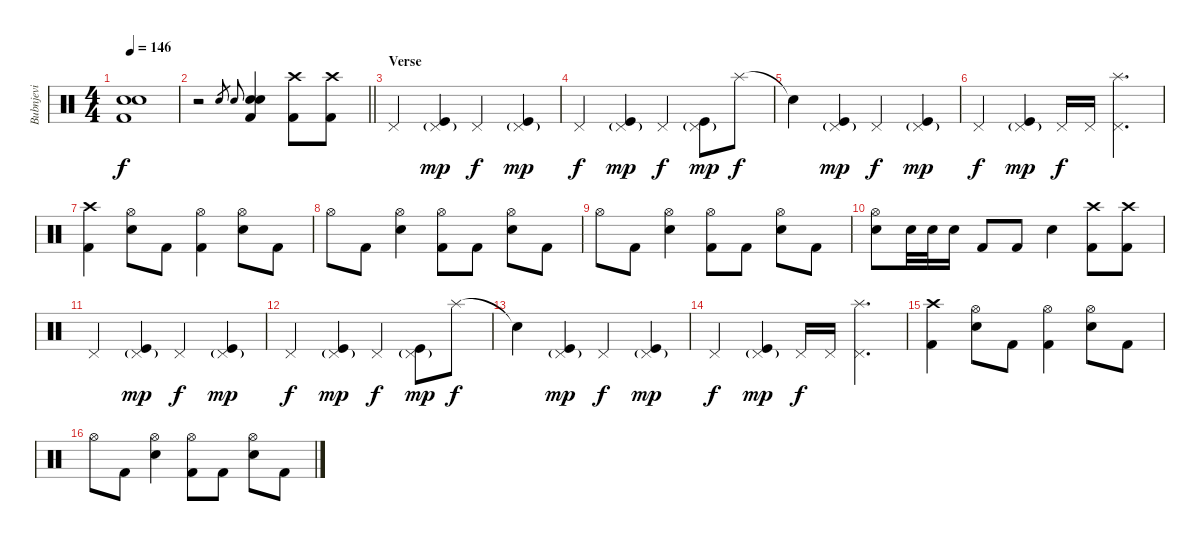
\track ("Bubnjevi" "Bubnjevi") {instrument percussion}
\staff {score}
\articulation defaults
\ts (4 4)
\section ("" "")
\tempo 146
\clef neutral
\ks c
("Electric Snare (hit)" "Snare (hit) 2" "Kick (hit) 2").1{dy f} |
\barLineRight lightlight
r.2 "Snare (hit) 2".16{gr} "Snare (hit) 2".16{gr onbeat} ("Electric Snare (hit)" "Snare (hit) 2" "Kick (hit) 2").4 ("Crash high (hit)" "Kick (hit) 2").8 ("Crash high (hit)" "Kick (hit) 2").8 |
\section ("" "Verse")
"Pedal Hi-Hat (hit)".4 ("Pedal Hi-Hat (hit)"{g} "Kick (hit)").4{dy mp} "Pedal Hi-Hat (hit)".4{dy f} ("Pedal Hi-Hat (hit)"{g} "Kick (hit)").4{dy mp} |
"Pedal Hi-Hat (hit)".4{dy f} ("Pedal Hi-Hat (hit)"{g} "Kick (hit)").4{dy mp} "Pedal Hi-Hat (hit)".4{dy f} ("Pedal Hi-Hat (hit)"{g} "Kick (hit)").8{dy mp} "Splash (hit)".8{dy f} |
"Snare (hit)"{t}.4 ("Pedal Hi-Hat (hit)"{g} "Kick (hit)").4{dy mp} "Pedal Hi-Hat (hit)".4{dy f} ("Pedal Hi-Hat (hit)"{g} "Kick (hit)").4{dy mp} |
"Pedal Hi-Hat (hit)".4{dy f} ("Pedal Hi-Hat (hit)"{g} "Kick (hit)").4{dy mp} "Pedal Hi-Hat (hit)".16{dy f} "Pedal Hi-Hat (hit)".16 ("Pedal Hi-Hat (hit)" "Splash (hit)").4{d} |
("Crash high (hit)" "Kick (hit) 2").4 ("Hi-Hat (open)" "Electric Snare (hit)").8 "Kick (hit) 2".8 ("Hi-Hat (open)" "Kick (hit) 2").4 ("Hi-Hat (open)" "Electric Snare (hit)").8 "Kick (hit) 2".8 |
"Hi-Hat (open)".8 "Kick (hit) 2".8 ("Hi-Hat (open)" "Electric Snare (hit)").4 ("Hi-Hat (open)" "Kick (hit) 2").8 "Kick (hit) 2".8 ("Hi-Hat (open)" "Electric Snare (hit)").8 "Kick (hit) 2".8 |
"Hi-Hat (open)".8 "Kick (hit) 2".8 ("Hi-Hat (open)" "Electric Snare (hit)").4 ("Hi-Hat (open)" "Kick (hit) 2").8 "Kick (hit) 2".8 ("Hi-Hat (open)" "Electric Snare (hit)").8 "Kick (hit) 2".8 |
("Hi-Hat (open)" "Snare (hit) 2").8 "Snare (hit) 2".32 "Snare (hit) 2".32 "Snare (hit) 2".16 "Kick (hit) 2".8 "Kick (hit) 2".8 "Snare (hit) 2".4 ("Crash high (hit)" "Kick (hit) 2").8 ("Crash high (hit)" "Kick (hit) 2").8 |
"Pedal Hi-Hat (hit)".4 ("Pedal Hi-Hat (hit)"{g} "Kick (hit)").4{dy mp} "Pedal Hi-Hat (hit)".4{dy f} ("Pedal Hi-Hat (hit)"{g} "Kick (hit)").4{dy mp} |
"Pedal Hi-Hat (hit)".4{dy f} ("Pedal Hi-Hat (hit)"{g} "Kick (hit)").4{dy mp} "Pedal Hi-Hat (hit)".4{dy f} ("Pedal Hi-Hat (hit)"{g} "Kick (hit)").8{dy mp} "Splash (hit)".8{dy f} |
"Snare (hit)"{t}.4 ("Pedal Hi-Hat (hit)"{g} "Kick (hit)").4{dy mp} "Pedal Hi-Hat (hit)".4{dy f} ("Pedal Hi-Hat (hit)"{g} "Kick (hit)").4{dy mp} |
"Pedal Hi-Hat (hit)".4{dy f} ("Pedal Hi-Hat (hit)"{g} "Kick (hit)").4{dy mp} "Pedal Hi-Hat (hit)".16{dy f} "Pedal Hi-Hat (hit)".16 ("Pedal Hi-Hat (hit)" "Splash (hit)").4{d} |
("Crash high (hit)" "Kick (hit) 2").4 ("Hi-Hat (open)" "Electric Snare (hit)").8 "Kick (hit) 2".8 ("Hi-Hat (open)" "Kick (hit) 2").4 ("Hi-Hat (open)" "Electric Snare (hit)").8 "Kick (hit) 2".8 |
"Hi-Hat (open)".8 "Kick (hit) 2".8 ("Hi-Hat (open)" "Electric Snare (hit)").4 ("Hi-Hat (open)" "Kick (hit) 2").8 "Kick (hit) 2".8 ("Hi-Hat (open)" "Electric Snare (hit)").8 "Kick (hit) 2".8
